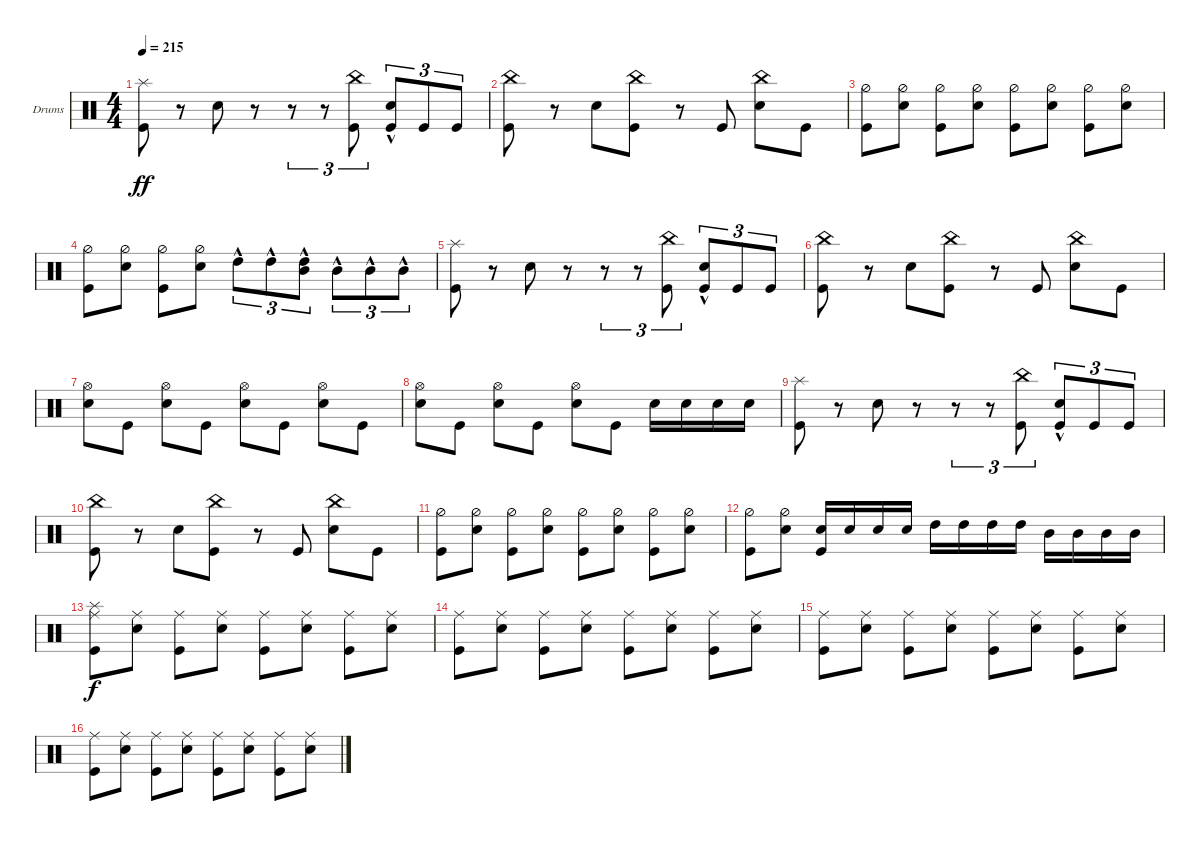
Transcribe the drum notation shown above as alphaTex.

\bracketExtendMode groupsimilarinstruments
\firstSystemTrackNameOrientation horizontal
\otherSystemsTrackNameOrientation horizontal
\track ("Drumkit" "Drums") {instrument percussion}
\staff {score}
\articulation defaults
\ts (4 4)
\tempo 215
\clef neutral
\ks c
("Kick (hit)" "Splash (hit)").8{dy ff} r.8 "Snare (hit) 2".8 r.8 r.8{tu (3 2)} r.8{tu (3 2)} ("Kick (hit)" "China (hit)").8{tu (3 2)} ("Kick (hit)" "Snare (hit) 2"{hac}).8{tu (3 2)} "Kick (hit)".8{tu (3 2)} "Kick (hit)".8{tu (3 2)} |
("Kick (hit)" "China (hit)").8 r.8 "Snare (hit) 2".8 ("Kick (hit)" "China (hit)").8 r.8 "Kick (hit)".8 ("Snare (hit) 2" "China (hit)").8 "Kick (hit)".8 |
("Kick (hit)" "Hi-Hat (half)").8 ("Snare (hit) 2" "Hi-Hat (half)").8 ("Kick (hit)" "Hi-Hat (half)").8 ("Snare (hit) 2" "Hi-Hat (half)").8 ("Kick (hit)" "Hi-Hat (half)").8 ("Snare (hit) 2" "Hi-Hat (half)").8 ("Kick (hit)" "Hi-Hat (half)").8 ("Snare (hit) 2" "Hi-Hat (half)").8 |
("Kick (hit)" "Hi-Hat (half)").8 ("Snare (hit) 2" "Hi-Hat (half)").8 ("Kick (hit)" "Hi-Hat (half)").8 ("Snare (hit) 2" "Hi-Hat (half)").8 "High Tom (hit)"{hac}.8{tu (3 2)} "High Tom (hit)"{hac}.8{tu (3 2)} ("Mid Tom (hit)"{hac} "High Tom (hit)"{hac}).8{tu (3 2)} "Mid Tom (hit)"{hac}.8{tu (3 2)} "Mid Tom (hit)"{hac}.8{tu (3 2)} "Mid Tom (hit)"{hac}.8{tu (3 2)} |
("Kick (hit)" "Splash (hit)").8 r.8 "Snare (hit) 2".8 r.8 r.8{tu (3 2)} r.8{tu (3 2)} ("Kick (hit)" "China (hit)").8{tu (3 2)} ("Kick (hit)" "Snare (hit) 2"{hac}).8{tu (3 2)} "Kick (hit)".8{tu (3 2)} "Kick (hit)".8{tu (3 2)} |
("Kick (hit)" "China (hit)").8 r.8 "Snare (hit) 2".8 ("Kick (hit)" "China (hit)").8 r.8 "Kick (hit)".8 ("Snare (hit) 2" "China (hit)").8 "Kick (hit)".8 |
("Snare (hit) 2" "Hi-Hat (open)").8 "Kick (hit)".8 ("Snare (hit) 2" "Hi-Hat (open)").8 "Kick (hit)".8 ("Snare (hit) 2" "Hi-Hat (open)").8 "Kick (hit)".8 ("Snare (hit) 2" "Hi-Hat (open)").8 "Kick (hit)".8 |
("Snare (hit) 2" "Hi-Hat (open)").8 "Kick (hit)".8 ("Snare (hit) 2" "Hi-Hat (open)").8 "Kick (hit)".8 ("Snare (hit) 2" "Hi-Hat (open)").8 "Kick (hit)".8 "Snare (hit) 2".16 "Snare (hit) 2".16 "Snare (hit) 2".16 "Snare (hit) 2".16 |
("Kick (hit)" "Splash (hit)").8 r.8 "Snare (hit) 2".8 r.8 r.8{tu (3 2)} r.8{tu (3 2)} ("Kick (hit)" "China (hit)").8{tu (3 2)} ("Kick (hit)" "Snare (hit) 2"{hac}).8{tu (3 2)} "Kick (hit)".8{tu (3 2)} "Kick (hit)".8{tu (3 2)} |
("Kick (hit)" "China (hit)").8 r.8 "Snare (hit) 2".8 ("Kick (hit)" "China (hit)").8 r.8 "Kick (hit)".8 ("Snare (hit) 2" "China (hit)").8 "Kick (hit)".8 |
("Kick (hit)" "Hi-Hat (half)").8 ("Snare (hit) 2" "Hi-Hat (half)").8 ("Kick (hit)" "Hi-Hat (half)").8 ("Snare (hit) 2" "Hi-Hat (half)").8 ("Kick (hit)" "Hi-Hat (half)").8 ("Snare (hit) 2" "Hi-Hat (half)").8 ("Kick (hit)" "Hi-Hat (half)").8 ("Snare (hit) 2" "Hi-Hat (half)").8 |
("Kick (hit)" "Hi-Hat (half)").8 ("Snare (hit) 2" "Hi-Hat (half)").8 ("Snare (hit) 2" "Kick (hit)").16 "Snare (hit) 2".16 "Snare (hit) 2".16 "Snare (hit) 2".16 "High Tom (hit)".16 "High Tom (hit)".16 "High Tom (hit)".16 "High Tom (hit)".16 "Mid Tom (hit)".16 "Mid Tom (hit)".16 "Mid Tom (hit)".16 "Mid Tom (hit)".16 |
("Kick (hit)" "Splash (hit)" "Ride (middle)").8{dy f} ("Snare (hit) 2" "Ride (middle)").8 ("Kick (hit)" "Ride (middle)").8 ("Snare (hit) 2" "Ride (middle)").8 ("Kick (hit)" "Ride (middle)").8 ("Snare (hit) 2" "Ride (middle)").8 ("Kick (hit)" "Ride (middle)").8 ("Snare (hit) 2" "Ride (middle)").8 |
("Kick (hit)" "Ride (middle)").8 ("Snare (hit) 2" "Ride (middle)").8 ("Kick (hit)" "Ride (middle)").8 ("Snare (hit) 2" "Ride (middle)").8 ("Kick (hit)" "Ride (middle)").8 ("Snare (hit) 2" "Ride (middle)").8 ("Kick (hit)" "Ride (middle)").8 ("Snare (hit) 2" "Ride (middle)").8 |
("Kick (hit)" "Ride (middle)").8 ("Snare (hit) 2" "Ride (middle)").8 ("Kick (hit)" "Ride (middle)").8 ("Snare (hit) 2" "Ride (middle)").8 ("Kick (hit)" "Ride (middle)").8 ("Snare (hit) 2" "Ride (middle)").8 ("Kick (hit)" "Ride (middle)").8 ("Snare (hit) 2" "Ride (middle)").8 |
("Kick (hit)" "Ride (middle)").8 ("Snare (hit) 2" "Ride (middle)").8 ("Kick (hit)" "Ride (middle)").8 ("Snare (hit) 2" "Ride (middle)").8 ("Kick (hit)" "Ride (middle)").8 ("Snare (hit) 2" "Ride (middle)").8 ("Kick (hit)" "Ride (middle)").8 ("Snare (hit) 2" "Ride (middle)").8
